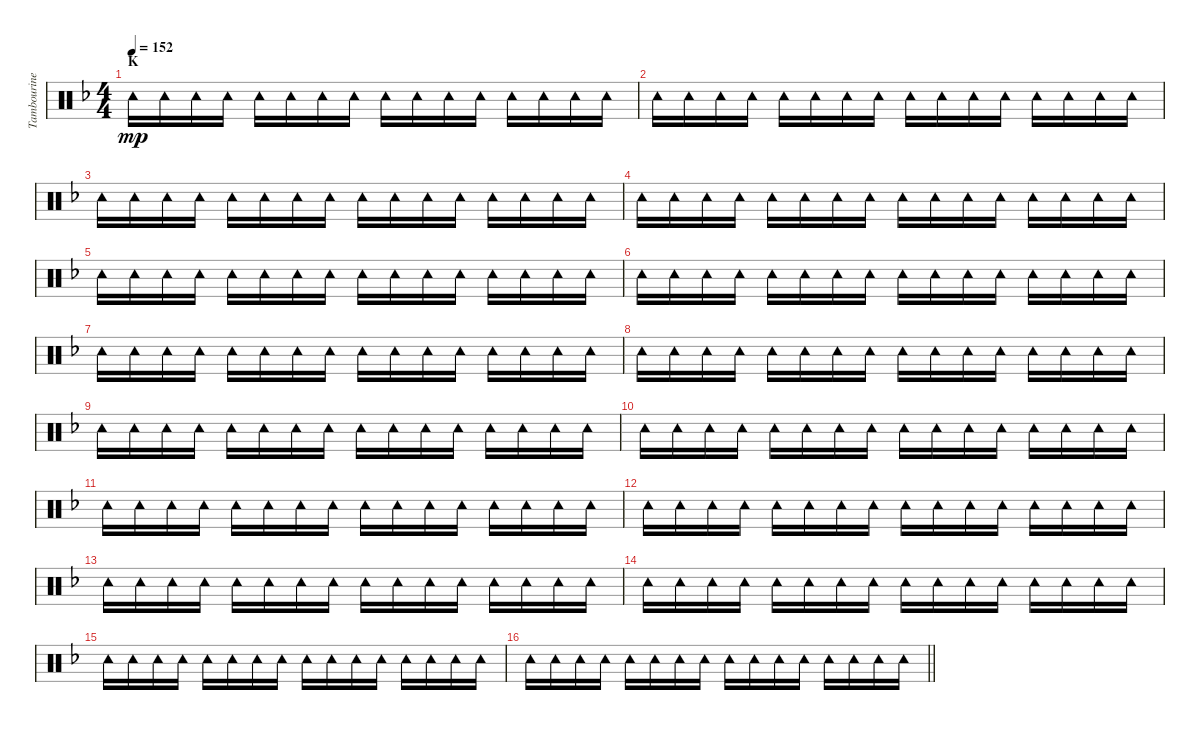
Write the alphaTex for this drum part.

\track ("Tambourine" "Tambourine") {instrument percussion}
\staff {score}
\articulation defaults
\ts (4 4)
\section ("" "K")
\tempo 152
\clef neutral
\ks f "Tambourine (hit)".16{dy mp} "Tambourine (hit)".16 "Tambourine (hit)".16 "Tambourine (hit)".16 "Tambourine (hit)".16 "Tambourine (hit)".16 "Tambourine (hit)".16 "Tambourine (hit)".16 "Tambourine (hit)".16 "Tambourine (hit)".16 "Tambourine (hit)".16 "Tambourine (hit)".16 "Tambourine (hit)".16 "Tambourine (hit)".16 "Tambourine (hit)".16 "Tambourine (hit)".16
|
"Tambourine (hit)".16 "Tambourine (hit)".16 "Tambourine (hit)".16 "Tambourine (hit)".16 "Tambourine (hit)".16 "Tambourine (hit)".16 "Tambourine (hit)".16 "Tambourine (hit)".16 "Tambourine (hit)".16 "Tambourine (hit)".16 "Tambourine (hit)".16 "Tambourine (hit)".16 "Tambourine (hit)".16 "Tambourine (hit)".16 "Tambourine (hit)".16 "Tambourine (hit)".16 |
"Tambourine (hit)".16 "Tambourine (hit)".16 "Tambourine (hit)".16 "Tambourine (hit)".16 "Tambourine (hit)".16 "Tambourine (hit)".16 "Tambourine (hit)".16 "Tambourine (hit)".16 "Tambourine (hit)".16 "Tambourine (hit)".16 "Tambourine (hit)".16 "Tambourine (hit)".16 "Tambourine (hit)".16 "Tambourine (hit)".16 "Tambourine (hit)".16 "Tambourine (hit)".16 |
"Tambourine (hit)".16 "Tambourine (hit)".16 "Tambourine (hit)".16 "Tambourine (hit)".16 "Tambourine (hit)".16 "Tambourine (hit)".16 "Tambourine (hit)".16 "Tambourine (hit)".16 "Tambourine (hit)".16 "Tambourine (hit)".16 "Tambourine (hit)".16 "Tambourine (hit)".16 "Tambourine (hit)".16 "Tambourine (hit)".16 "Tambourine (hit)".16 "Tambourine (hit)".16 |
"Tambourine (hit)".16 "Tambourine (hit)".16 "Tambourine (hit)".16 "Tambourine (hit)".16 "Tambourine (hit)".16 "Tambourine (hit)".16 "Tambourine (hit)".16 "Tambourine (hit)".16 "Tambourine (hit)".16 "Tambourine (hit)".16 "Tambourine (hit)".16 "Tambourine (hit)".16 "Tambourine (hit)".16 "Tambourine (hit)".16 "Tambourine (hit)".16 "Tambourine (hit)".16 |
"Tambourine (hit)".16 "Tambourine (hit)".16 "Tambourine (hit)".16 "Tambourine (hit)".16 "Tambourine (hit)".16 "Tambourine (hit)".16 "Tambourine (hit)".16 "Tambourine (hit)".16 "Tambourine (hit)".16 "Tambourine (hit)".16 "Tambourine (hit)".16 "Tambourine (hit)".16 "Tambourine (hit)".16 "Tambourine (hit)".16 "Tambourine (hit)".16 "Tambourine (hit)".16 |
"Tambourine (hit)".16 "Tambourine (hit)".16 "Tambourine (hit)".16 "Tambourine (hit)".16 "Tambourine (hit)".16 "Tambourine (hit)".16 "Tambourine (hit)".16 "Tambourine (hit)".16 "Tambourine (hit)".16 "Tambourine (hit)".16 "Tambourine (hit)".16 "Tambourine (hit)".16 "Tambourine (hit)".16 "Tambourine (hit)".16 "Tambourine (hit)".16 "Tambourine (hit)".16 |
"Tambourine (hit)".16 "Tambourine (hit)".16 "Tambourine (hit)".16 "Tambourine (hit)".16 "Tambourine (hit)".16 "Tambourine (hit)".16 "Tambourine (hit)".16 "Tambourine (hit)".16 "Tambourine (hit)".16 "Tambourine (hit)".16 "Tambourine (hit)".16 "Tambourine (hit)".16 "Tambourine (hit)".16 "Tambourine (hit)".16 "Tambourine (hit)".16 "Tambourine (hit)".16 |
"Tambourine (hit)".16 "Tambourine (hit)".16 "Tambourine (hit)".16 "Tambourine (hit)".16 "Tambourine (hit)".16 "Tambourine (hit)".16 "Tambourine (hit)".16 "Tambourine (hit)".16 "Tambourine (hit)".16 "Tambourine (hit)".16 "Tambourine (hit)".16 "Tambourine (hit)".16 "Tambourine (hit)".16 "Tambourine (hit)".16 "Tambourine (hit)".16 "Tambourine (hit)".16 |
"Tambourine (hit)".16 "Tambourine (hit)".16 "Tambourine (hit)".16 "Tambourine (hit)".16 "Tambourine (hit)".16 "Tambourine (hit)".16 "Tambourine (hit)".16 "Tambourine (hit)".16 "Tambourine (hit)".16 "Tambourine (hit)".16 "Tambourine (hit)".16 "Tambourine (hit)".16 "Tambourine (hit)".16 "Tambourine (hit)".16 "Tambourine (hit)".16 "Tambourine (hit)".16 |
"Tambourine (hit)".16 "Tambourine (hit)".16 "Tambourine (hit)".16 "Tambourine (hit)".16 "Tambourine (hit)".16 "Tambourine (hit)".16 "Tambourine (hit)".16 "Tambourine (hit)".16 "Tambourine (hit)".16 "Tambourine (hit)".16 "Tambourine (hit)".16 "Tambourine (hit)".16 "Tambourine (hit)".16 "Tambourine (hit)".16 "Tambourine (hit)".16 "Tambourine (hit)".16 |
"Tambourine (hit)".16 "Tambourine (hit)".16 "Tambourine (hit)".16 "Tambourine (hit)".16 "Tambourine (hit)".16 "Tambourine (hit)".16 "Tambourine (hit)".16 "Tambourine (hit)".16 "Tambourine (hit)".16 "Tambourine (hit)".16 "Tambourine (hit)".16 "Tambourine (hit)".16 "Tambourine (hit)".16 "Tambourine (hit)".16 "Tambourine (hit)".16 "Tambourine (hit)".16 |
"Tambourine (hit)".16 "Tambourine (hit)".16 "Tambourine (hit)".16 "Tambourine (hit)".16 "Tambourine (hit)".16 "Tambourine (hit)".16 "Tambourine (hit)".16 "Tambourine (hit)".16 "Tambourine (hit)".16 "Tambourine (hit)".16 "Tambourine (hit)".16 "Tambourine (hit)".16 "Tambourine (hit)".16 "Tambourine (hit)".16 "Tambourine (hit)".16 "Tambourine (hit)".16 |
"Tambourine (hit)".16 "Tambourine (hit)".16 "Tambourine (hit)".16 "Tambourine (hit)".16 "Tambourine (hit)".16 "Tambourine (hit)".16 "Tambourine (hit)".16 "Tambourine (hit)".16 "Tambourine (hit)".16 "Tambourine (hit)".16 "Tambourine (hit)".16 "Tambourine (hit)".16 "Tambourine (hit)".16 "Tambourine (hit)".16 "Tambourine (hit)".16 "Tambourine (hit)".16 |
"Tambourine (hit)".16 "Tambourine (hit)".16 "Tambourine (hit)".16 "Tambourine (hit)".16 "Tambourine (hit)".16 "Tambourine (hit)".16 "Tambourine (hit)".16 "Tambourine (hit)".16 "Tambourine (hit)".16 "Tambourine (hit)".16 "Tambourine (hit)".16 "Tambourine (hit)".16 "Tambourine (hit)".16 "Tambourine (hit)".16 "Tambourine (hit)".16 "Tambourine (hit)".16 |
\barLineRight lightlight "Tambourine (hit)".16 "Tambourine (hit)".16 "Tambourine (hit)".16 "Tambourine (hit)".16 "Tambourine (hit)".16 "Tambourine (hit)".16 "Tambourine (hit)".16 "Tambourine (hit)".16 "Tambourine (hit)".16 "Tambourine (hit)".16 "Tambourine (hit)".16 "Tambourine (hit)".16 "Tambourine (hit)".16 "Tambourine (hit)".16 "Tambourine (hit)".16 "Tambourine (hit)".16
